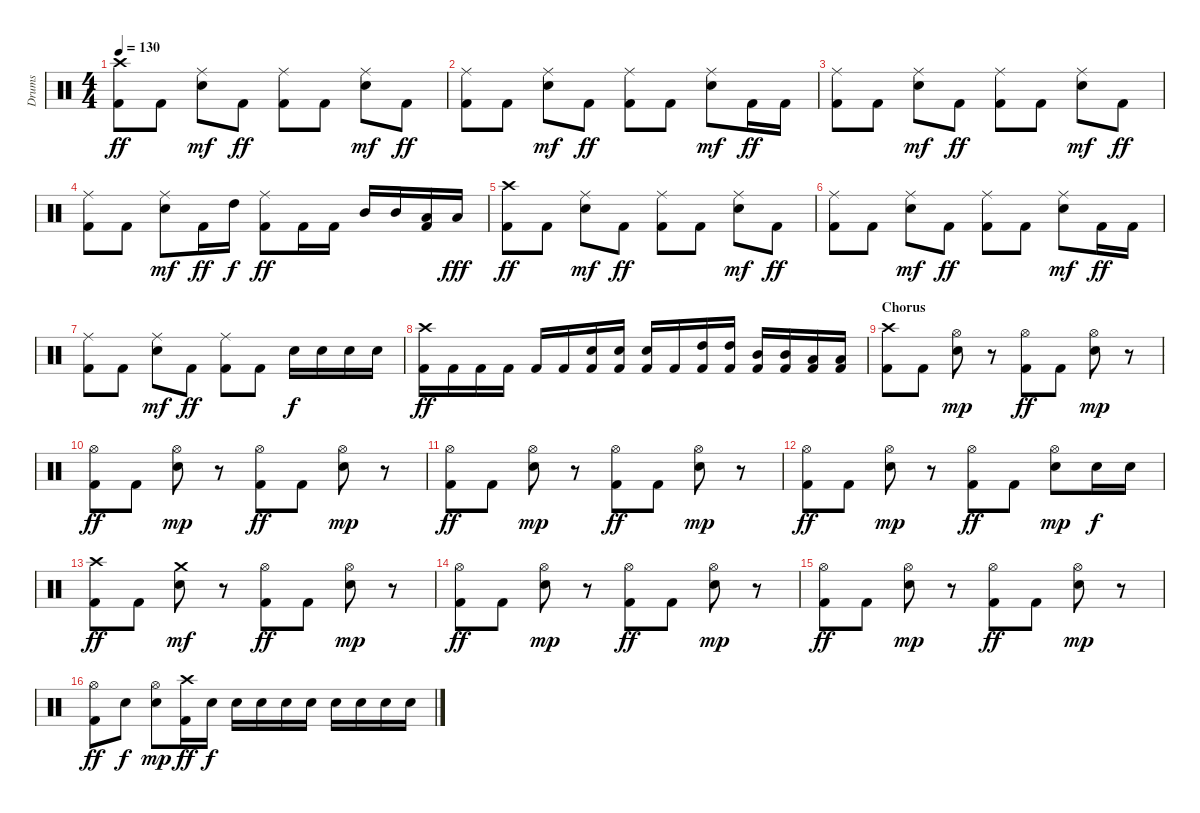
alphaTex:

\track ("Drums" "Drums") {instrument percussion}
\staff {score}
\articulation defaults
\ts (4 4)
\tempo 130
\clef neutral
\ks c
("Crash high (hit)" "Kick (hit) 2").8{dy ff} "Kick (hit) 2".8 ("Ride (middle)" "Electric Snare (hit)").8{dy mf} "Kick (hit) 2".8{dy ff} ("Ride (middle)" "Kick (hit) 2").8 "Kick (hit) 2".8 ("Ride (middle)" "Electric Snare (hit)").8{dy mf} "Kick (hit) 2".8{dy ff} |
("Ride (middle)" "Kick (hit) 2").8 "Kick (hit) 2".8 ("Ride (middle)" "Electric Snare (hit)").8{dy mf} "Kick (hit) 2".8{dy ff} ("Ride (middle)" "Kick (hit) 2").8 "Kick (hit) 2".8 ("Ride (middle)" "Electric Snare (hit)").8{dy mf} "Kick (hit) 2".16{dy ff} "Kick (hit) 2".16 |
("Ride (middle)" "Kick (hit) 2").8 "Kick (hit) 2".8 ("Ride (middle)" "Electric Snare (hit)").8{dy mf} "Kick (hit) 2".8{dy ff} ("Ride (middle)" "Kick (hit) 2").8 "Kick (hit) 2".8 ("Ride (middle)" "Electric Snare (hit)").8{dy mf} "Kick (hit) 2".8{dy ff} |
("Ride (middle)" "Kick (hit) 2").8 "Kick (hit) 2".8 ("Ride (middle)" "Electric Snare (hit)").8{dy mf} "Kick (hit) 2".16{dy ff} "High Tom (hit)".16{dy f} ("Ride (middle)" "Kick (hit) 2").8{dy ff} "Kick (hit) 2".16 "Kick (hit) 2".16 "Mid Tom (hit)".16 "Mid Tom (hit)".16 ("Low Tom (hit)" "Kick (hit) 2").16 "Low Tom (hit)".16{dy fff} |
("Crash high (hit)" "Kick (hit) 2").8{dy ff} "Kick (hit) 2".8 ("Ride (middle)" "Electric Snare (hit)").8{dy mf} "Kick (hit) 2".8{dy ff} ("Ride (middle)" "Kick (hit) 2").8 "Kick (hit) 2".8 ("Ride (middle)" "Electric Snare (hit)").8{dy mf} "Kick (hit) 2".8{dy ff} |
("Ride (middle)" "Kick (hit) 2").8 "Kick (hit) 2".8 ("Ride (middle)" "Electric Snare (hit)").8{dy mf} "Kick (hit) 2".8{dy ff} ("Ride (middle)" "Kick (hit) 2").8 "Kick (hit) 2".8 ("Ride (middle)" "Electric Snare (hit)").8{dy mf} "Kick (hit) 2".16{dy ff} "Kick (hit) 2".16 |
("Ride (middle)" "Kick (hit) 2").8 "Kick (hit) 2".8 ("Ride (middle)" "Electric Snare (hit)").8{dy mf} "Kick (hit) 2".8{dy ff} ("Ride (middle)" "Kick (hit) 2").8 "Kick (hit) 2".8 "Electric Snare (hit)".16{dy f} "Electric Snare (hit)".16 "Electric Snare (hit)".16 "Electric Snare (hit)".16 |
("Crash high (hit)" "Kick (hit) 2").16{dy ff} "Kick (hit) 2".16 "Kick (hit) 2".16 "Kick (hit) 2".16 "Kick (hit) 2".16 "Kick (hit) 2".16 ("Electric Snare (hit)" "Kick (hit) 2").16 ("Electric Snare (hit)" "Kick (hit) 2").16 ("Electric Snare (hit)" "Kick (hit) 2").16 "Kick (hit) 2".16 ("High Tom (hit)" "Kick (hit) 2").16 ("High Tom (hit)" "Kick (hit) 2").16 ("Mid Tom (hit)" "Kick (hit) 2").16 ("Mid Tom (hit)" "Kick (hit) 2").16 ("Low Tom (hit)" "Kick (hit) 2").16 ("Low Tom (hit)" "Kick (hit) 2").16 |
\section ("" "Chorus")
("Crash high (hit)" "Kick (hit) 2").8 "Kick (hit) 2".8 ("Hi-Hat (open)" "Electric Snare (hit)").8{dy mp} r.8 ("Hi-Hat (open)" "Kick (hit) 2").8{dy ff} "Kick (hit) 2".8 ("Hi-Hat (open)" "Electric Snare (hit)").8{dy mp} r.8 |
("Hi-Hat (open)" "Kick (hit) 2").8{dy ff} "Kick (hit) 2".8 ("Hi-Hat (open)" "Electric Snare (hit)").8{dy mp} r.8 ("Hi-Hat (open)" "Kick (hit) 2").8{dy ff} "Kick (hit) 2".8 ("Hi-Hat (open)" "Electric Snare (hit)").8{dy mp} r.8 |
("Hi-Hat (open)" "Kick (hit) 2").8{dy ff} "Kick (hit) 2".8 ("Hi-Hat (open)" "Electric Snare (hit)").8{dy mp} r.8 ("Hi-Hat (open)" "Kick (hit) 2").8{dy ff} "Kick (hit) 2".8 ("Hi-Hat (open)" "Electric Snare (hit)").8{dy mp} r.8 |
("Hi-Hat (open)" "Kick (hit) 2").8{dy ff} "Kick (hit) 2".8 ("Hi-Hat (open)" "Electric Snare (hit)").8{dy mp} r.8 ("Hi-Hat (open)" "Kick (hit) 2").8{dy ff} "Kick (hit) 2".8 ("Hi-Hat (open)" "Electric Snare (hit)").8{dy mp} "Electric Snare (hit)".16{dy f} "Electric Snare (hit)".16 |
("Crash high (hit)" "Kick (hit) 2").8{dy ff} "Kick (hit) 2".8 ("Crash medium (hit)" "Electric Snare (hit)").8{dy mf} r.8 ("Hi-Hat (open)" "Kick (hit) 2").8{dy ff} "Kick (hit) 2".8 ("Hi-Hat (open)" "Electric Snare (hit)").8{dy mp} r.8 |
("Hi-Hat (open)" "Kick (hit) 2").8{dy ff} "Kick (hit) 2".8 ("Hi-Hat (open)" "Electric Snare (hit)").8{dy mp} r.8 ("Hi-Hat (open)" "Kick (hit) 2").8{dy ff} "Kick (hit) 2".8 ("Hi-Hat (open)" "Electric Snare (hit)").8{dy mp} r.8 |
("Hi-Hat (open)" "Kick (hit) 2").8{dy ff} "Kick (hit) 2".8 ("Hi-Hat (open)" "Electric Snare (hit)").8{dy mp} r.8 ("Hi-Hat (open)" "Kick (hit) 2").8{dy ff} "Kick (hit) 2".8 ("Hi-Hat (open)" "Electric Snare (hit)").8{dy mp} r.8 |
("Hi-Hat (open)" "Kick (hit) 2").8{dy ff} "Electric Snare (hit)".8{dy f} ("Hi-Hat (open)" "Electric Snare (hit)").8{dy mp} ("Crash high (hit)" "Kick (hit) 2").16{dy ff} "Electric Snare (hit)".16{dy f} "Electric Snare (hit)".16 "Electric Snare (hit)".16 "Electric Snare (hit)".16 "Electric Snare (hit)".16 "Electric Snare (hit)".16 "Electric Snare (hit)".16 "Electric Snare (hit)".16 "Electric Snare (hit)".16
